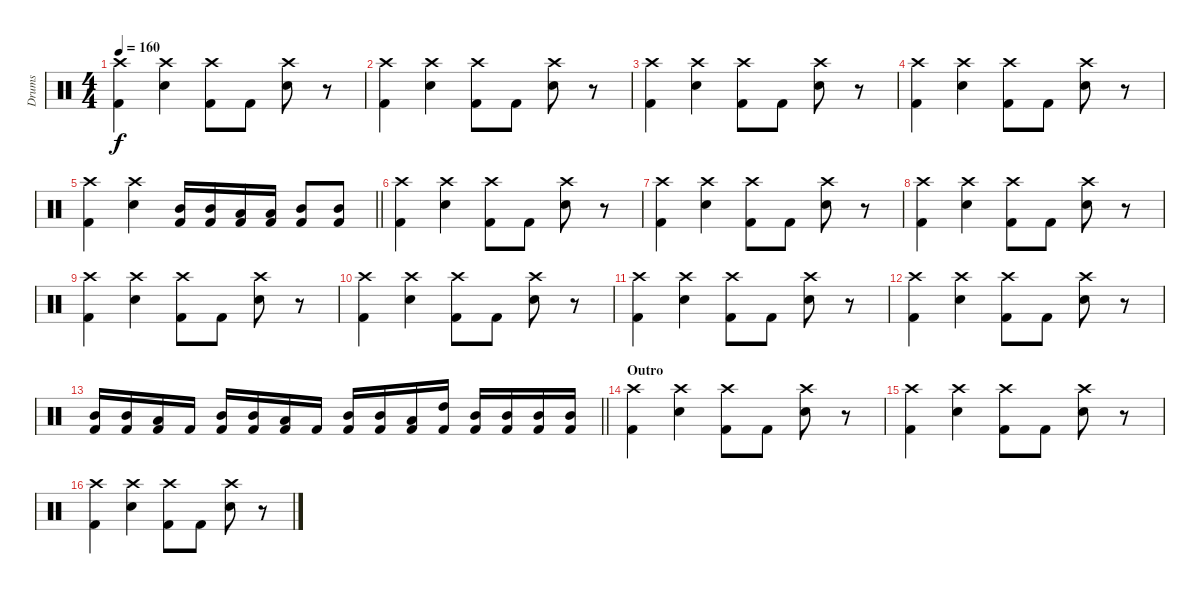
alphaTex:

\track ("Drums" "Drums") {instrument percussion}
\staff {score}
\articulation defaults
\ts (4 4)
\tempo 160
\clef neutral
\ks c
("Crash high (hit)" "Kick (hit) 2").4{dy f} ("Crash high (hit)" "Electric Snare (hit)").4 ("Crash high (hit)" "Kick (hit) 2").8 "Kick (hit) 2".8 ("Crash high (hit)" "Electric Snare (hit)").8 r.8 |
("Crash high (hit)" "Kick (hit) 2").4 ("Crash high (hit)" "Electric Snare (hit)").4 ("Crash high (hit)" "Kick (hit) 2").8 "Kick (hit) 2".8 ("Crash high (hit)" "Electric Snare (hit)").8 r.8 |
("Crash high (hit)" "Kick (hit) 2").4 ("Crash high (hit)" "Electric Snare (hit)").4 ("Crash high (hit)" "Kick (hit) 2").8 "Kick (hit) 2".8 ("Crash high (hit)" "Electric Snare (hit)").8 r.8 |
("Crash high (hit)" "Kick (hit) 2").4 ("Crash high (hit)" "Electric Snare (hit)").4 ("Crash high (hit)" "Kick (hit) 2").8 "Kick (hit) 2".8 ("Crash high (hit)" "Electric Snare (hit)").8 r.8 |
\barLineRight lightlight
("Crash high (hit)" "Kick (hit) 2").4 ("Crash high (hit)" "Electric Snare (hit)").4 ("Mid Tom (hit)" "Kick (hit) 2").16 ("Mid Tom (hit)" "Kick (hit) 2").16 ("Low Tom (hit)" "Kick (hit) 2").16 ("Low Tom (hit)" "Kick (hit) 2").16 ("Mid Tom (hit)" "Kick (hit) 2").8 ("Mid Tom (hit)" "Kick (hit) 2").8 |
("Crash high (hit)" "Kick (hit) 2").4 ("Crash high (hit)" "Electric Snare (hit)").4 ("Crash high (hit)" "Kick (hit) 2").8 "Kick (hit) 2".8 ("Crash high (hit)" "Electric Snare (hit)").8 r.8 |
("Crash high (hit)" "Kick (hit) 2").4 ("Crash high (hit)" "Electric Snare (hit)").4 ("Crash high (hit)" "Kick (hit) 2").8 "Kick (hit) 2".8 ("Crash high (hit)" "Electric Snare (hit)").8 r.8 |
("Crash high (hit)" "Kick (hit) 2").4 ("Crash high (hit)" "Electric Snare (hit)").4 ("Crash high (hit)" "Kick (hit) 2").8 "Kick (hit) 2".8 ("Crash high (hit)" "Electric Snare (hit)").8 r.8 |
("Crash high (hit)" "Kick (hit) 2").4 ("Crash high (hit)" "Electric Snare (hit)").4 ("Crash high (hit)" "Kick (hit) 2").8 "Kick (hit) 2".8 ("Crash high (hit)" "Electric Snare (hit)").8 r.8 |
("Crash high (hit)" "Kick (hit) 2").4 ("Crash high (hit)" "Electric Snare (hit)").4 ("Crash high (hit)" "Kick (hit) 2").8 "Kick (hit) 2".8 ("Crash high (hit)" "Electric Snare (hit)").8 r.8 |
("Crash high (hit)" "Kick (hit) 2").4 ("Crash high (hit)" "Electric Snare (hit)").4 ("Crash high (hit)" "Kick (hit) 2").8 "Kick (hit) 2".8 ("Crash high (hit)" "Electric Snare (hit)").8 r.8 |
("Crash high (hit)" "Kick (hit) 2").4 ("Crash high (hit)" "Electric Snare (hit)").4 ("Crash high (hit)" "Kick (hit) 2").8 "Kick (hit) 2".8 ("Crash high (hit)" "Electric Snare (hit)").8 r.8 |
\barLineRight lightlight
("Mid Tom (hit)" "Kick (hit) 2").16 ("Mid Tom (hit)" "Kick (hit) 2").16 ("Low Tom (hit)" "Kick (hit) 2").16 "Kick (hit) 2".16 ("Mid Tom (hit)" "Kick (hit) 2").16 ("Mid Tom (hit)" "Kick (hit) 2").16 ("Low Tom (hit)" "Kick (hit) 2").16 "Kick (hit) 2".16 ("Mid Tom (hit)" "Kick (hit) 2").16 ("Mid Tom (hit)" "Kick (hit) 2").16 ("Low Tom (hit)" "Kick (hit) 2").16 ("High Tom (hit)" "Kick (hit) 2").16 ("Mid Tom (hit)" "Kick (hit) 2").16 ("Mid Tom (hit)" "Kick (hit) 2").16 ("Mid Tom (hit)" "Kick (hit) 2").16 ("Mid Tom (hit)" "Kick (hit) 2").16 |
\section ("" "Outro")
("Crash high (hit)" "Kick (hit) 2").4 ("Crash high (hit)" "Electric Snare (hit)").4 ("Crash high (hit)" "Kick (hit) 2").8 "Kick (hit) 2".8 ("Crash high (hit)" "Electric Snare (hit)").8 r.8 |
("Crash high (hit)" "Kick (hit) 2").4 ("Crash high (hit)" "Electric Snare (hit)").4 ("Crash high (hit)" "Kick (hit) 2").8 "Kick (hit) 2".8 ("Crash high (hit)" "Electric Snare (hit)").8 r.8 |
("Crash high (hit)" "Kick (hit) 2").4 ("Crash high (hit)" "Electric Snare (hit)").4 ("Crash high (hit)" "Kick (hit) 2").8 "Kick (hit) 2".8 ("Crash high (hit)" "Electric Snare (hit)").8 r.8
